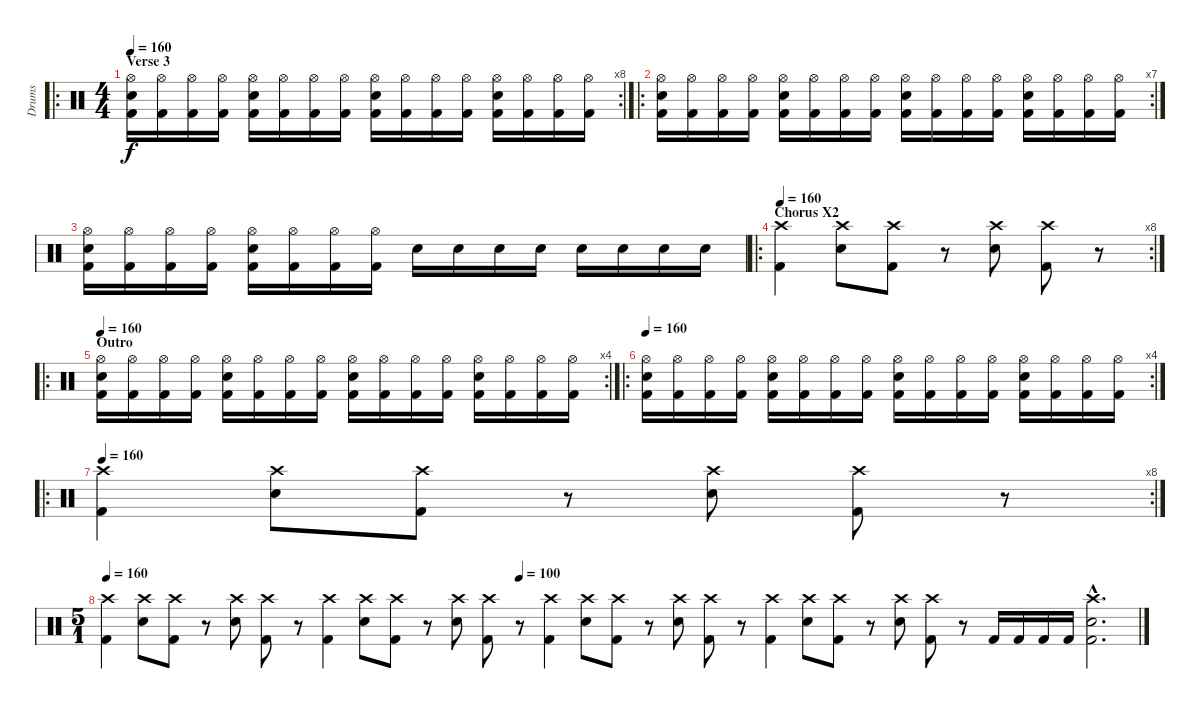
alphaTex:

\track ("Drums" "Drums") {instrument percussion}
\staff {score}
\articulation defaults
\ro
\rc 8
\ts (4 4)
\section ("" "Verse 3")
\tempo 160
\clef neutral
\ks c
("Kick (hit) 2" "Hi-Hat (open)" "Electric Snare (hit)").16{dy f} ("Kick (hit) 2" "Hi-Hat (open)").16 ("Kick (hit) 2" "Hi-Hat (open)").16 ("Kick (hit) 2" "Hi-Hat (open)").16 ("Kick (hit) 2" "Hi-Hat (open)" "Electric Snare (hit)").16 ("Kick (hit) 2" "Hi-Hat (open)").16 ("Kick (hit) 2" "Hi-Hat (open)").16 ("Kick (hit) 2" "Hi-Hat (open)").16 ("Kick (hit) 2" "Hi-Hat (open)" "Electric Snare (hit)").16 ("Kick (hit) 2" "Hi-Hat (open)").16 ("Kick (hit) 2" "Hi-Hat (open)").16 ("Kick (hit) 2" "Hi-Hat (open)").16 ("Kick (hit) 2" "Hi-Hat (open)" "Electric Snare (hit)").16 ("Kick (hit) 2" "Hi-Hat (open)").16 ("Kick (hit) 2" "Hi-Hat (open)").16 ("Kick (hit) 2" "Hi-Hat (open)").16 |
\ro
\rc 7
("Kick (hit) 2" "Hi-Hat (open)" "Electric Snare (hit)").16 ("Kick (hit) 2" "Hi-Hat (open)").16 ("Kick (hit) 2" "Hi-Hat (open)").16 ("Kick (hit) 2" "Hi-Hat (open)").16 ("Kick (hit) 2" "Hi-Hat (open)" "Electric Snare (hit)").16 ("Kick (hit) 2" "Hi-Hat (open)").16 ("Kick (hit) 2" "Hi-Hat (open)").16 ("Kick (hit) 2" "Hi-Hat (open)").16 ("Kick (hit) 2" "Hi-Hat (open)" "Electric Snare (hit)").16 ("Kick (hit) 2" "Hi-Hat (open)").16 ("Kick (hit) 2" "Hi-Hat (open)").16 ("Kick (hit) 2" "Hi-Hat (open)").16 ("Kick (hit) 2" "Hi-Hat (open)" "Electric Snare (hit)").16 ("Kick (hit) 2" "Hi-Hat (open)").16 ("Kick (hit) 2" "Hi-Hat (open)").16 ("Kick (hit) 2" "Hi-Hat (open)").16 |
("Kick (hit) 2" "Hi-Hat (open)" "Electric Snare (hit)").16 ("Kick (hit) 2" "Hi-Hat (open)").16 ("Kick (hit) 2" "Hi-Hat (open)").16 ("Kick (hit) 2" "Hi-Hat (open)").16 ("Kick (hit) 2" "Hi-Hat (open)" "Electric Snare (hit)").16 ("Kick (hit) 2" "Hi-Hat (open)").16 ("Kick (hit) 2" "Hi-Hat (open)").16 ("Kick (hit) 2" "Hi-Hat (open)").16 "Electric Snare (hit)".16 "Electric Snare (hit)".16 "Electric Snare (hit)".16 "Electric Snare (hit)".16 "Electric Snare (hit)".16 "Electric Snare (hit)".16 "Electric Snare (hit)".16 "Electric Snare (hit)".16 |
\ro
\rc 8
\section ("" "Chorus X2")
\tempo 160
("Crash high (hit)" "Kick (hit) 2").4 ("Crash high (hit)" "Electric Snare (hit)").8 ("Crash high (hit)" "Kick (hit) 2").8 r.8 ("Crash high (hit)" "Electric Snare (hit)").8 ("Crash high (hit)" "Kick (hit) 2").8 r.8 |
\ro
\rc 4
\section ("" "Outro")
\tempo 160
("Kick (hit) 2" "Hi-Hat (open)" "Electric Snare (hit)").16 ("Kick (hit) 2" "Hi-Hat (open)").16 ("Kick (hit) 2" "Hi-Hat (open)").16 ("Kick (hit) 2" "Hi-Hat (open)").16 ("Kick (hit) 2" "Hi-Hat (open)" "Electric Snare (hit)").16 ("Kick (hit) 2" "Hi-Hat (open)").16 ("Kick (hit) 2" "Hi-Hat (open)").16 ("Kick (hit) 2" "Hi-Hat (open)").16 ("Kick (hit) 2" "Hi-Hat (open)" "Electric Snare (hit)").16 ("Kick (hit) 2" "Hi-Hat (open)").16 ("Kick (hit) 2" "Hi-Hat (open)").16 ("Kick (hit) 2" "Hi-Hat (open)").16 ("Kick (hit) 2" "Hi-Hat (open)" "Electric Snare (hit)").16 ("Kick (hit) 2" "Hi-Hat (open)").16 ("Kick (hit) 2" "Hi-Hat (open)").16 ("Kick (hit) 2" "Hi-Hat (open)").16 |
\ro
\rc 4
\tempo 160
("Kick (hit) 2" "Hi-Hat (open)" "Electric Snare (hit)").16 ("Kick (hit) 2" "Hi-Hat (open)").16 ("Kick (hit) 2" "Hi-Hat (open)").16 ("Kick (hit) 2" "Hi-Hat (open)").16 ("Kick (hit) 2" "Hi-Hat (open)" "Electric Snare (hit)").16 ("Kick (hit) 2" "Hi-Hat (open)").16 ("Kick (hit) 2" "Hi-Hat (open)").16 ("Kick (hit) 2" "Hi-Hat (open)").16 ("Kick (hit) 2" "Hi-Hat (open)" "Electric Snare (hit)").16 ("Kick (hit) 2" "Hi-Hat (open)").16 ("Kick (hit) 2" "Hi-Hat (open)").16 ("Kick (hit) 2" "Hi-Hat (open)").16 ("Kick (hit) 2" "Hi-Hat (open)" "Electric Snare (hit)").16 ("Kick (hit) 2" "Hi-Hat (open)").16 ("Kick (hit) 2" "Hi-Hat (open)").16 ("Kick (hit) 2" "Hi-Hat (open)").16 |
\ro
\rc 8
\tempo 160
("Crash high (hit)" "Kick (hit) 2").4 ("Crash high (hit)" "Electric Snare (hit)").8 ("Crash high (hit)" "Kick (hit) 2").8 r.8 ("Crash high (hit)" "Electric Snare (hit)").8 ("Crash high (hit)" "Kick (hit) 2").8 r.8 |
\ts (5 1)
\tempo 160
\tempo (100 0.4)
("Crash high (hit)" "Kick (hit) 2").4 ("Crash high (hit)" "Electric Snare (hit)").8 ("Crash high (hit)" "Kick (hit) 2").8 r.8 ("Crash high (hit)" "Electric Snare (hit)").8 ("Crash high (hit)" "Kick (hit) 2").8 r.8 ("Crash high (hit)" "Kick (hit) 2").4 ("Crash high (hit)" "Electric Snare (hit)").8 ("Crash high (hit)" "Kick (hit) 2").8 r.8 ("Crash high (hit)" "Electric Snare (hit)").8 ("Crash high (hit)" "Kick (hit) 2").8 r.8 ("Crash high (hit)" "Kick (hit) 2").4 ("Crash high (hit)" "Electric Snare (hit)").8 ("Crash high (hit)" "Kick (hit) 2").8 r.8 ("Crash high (hit)" "Electric Snare (hit)").8 ("Crash high (hit)" "Kick (hit) 2").8 r.8 ("Crash high (hit)" "Kick (hit) 2").4 ("Crash high (hit)" "Electric Snare (hit)").8 ("Crash high (hit)" "Kick (hit) 2").8 r.8 ("Crash high (hit)" "Electric Snare (hit)").8 ("Crash high (hit)" "Kick (hit) 2").8 r.8 "Kick (hit) 2".16 "Kick (hit) 2".16 "Kick (hit) 2".16 "Kick (hit) 2".16 ("Crash high (hit)"{hac} "Kick (hit) 2"{hac} "Electric Snare (hit)"{hac}).2{d}
